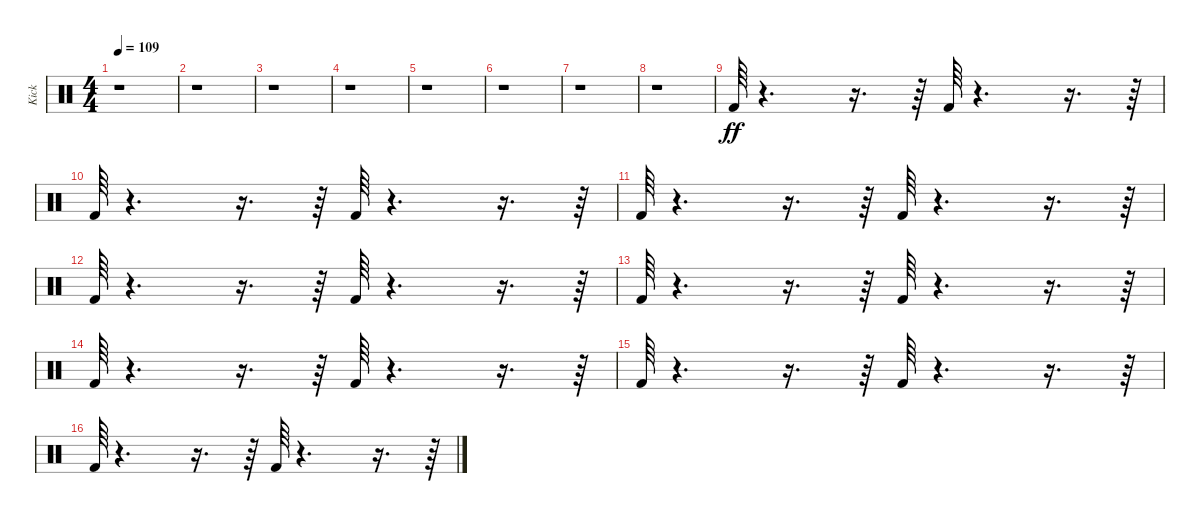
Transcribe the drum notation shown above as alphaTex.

\track ("Kick" "Kick") {instrument percussion}
\staff {score}
\articulation defaults
\ts (4 4)
\tempo 109
\clef neutral
\ks c
r.1{dy ff} |
r.1 |
r.1 |
r.1 |
r.1 |
r.1 |
r.1 |
r.1 |
"Kick (hit) 2".64 r.4{d} r.16{d} r.64 "Kick (hit) 2".64 r.4{d} r.16{d} r.64 |
"Kick (hit) 2".64 r.4{d} r.16{d} r.64 "Kick (hit) 2".64 r.4{d} r.16{d} r.64 |
"Kick (hit) 2".64 r.4{d} r.16{d} r.64 "Kick (hit) 2".64 r.4{d} r.16{d} r.64 |
"Kick (hit) 2".64 r.4{d} r.16{d} r.64 "Kick (hit) 2".64 r.4{d} r.16{d} r.64 |
"Kick (hit) 2".64 r.4{d} r.16{d} r.64 "Kick (hit) 2".64 r.4{d} r.16{d} r.64 |
"Kick (hit) 2".64 r.4{d} r.16{d} r.64 "Kick (hit) 2".64 r.4{d} r.16{d} r.64 |
"Kick (hit) 2".64 r.4{d} r.16{d} r.64 "Kick (hit) 2".64 r.4{d} r.16{d} r.64 |
"Kick (hit) 2".64 r.4{d} r.16{d} r.64 "Kick (hit) 2".64 r.4{d} r.16{d} r.64
